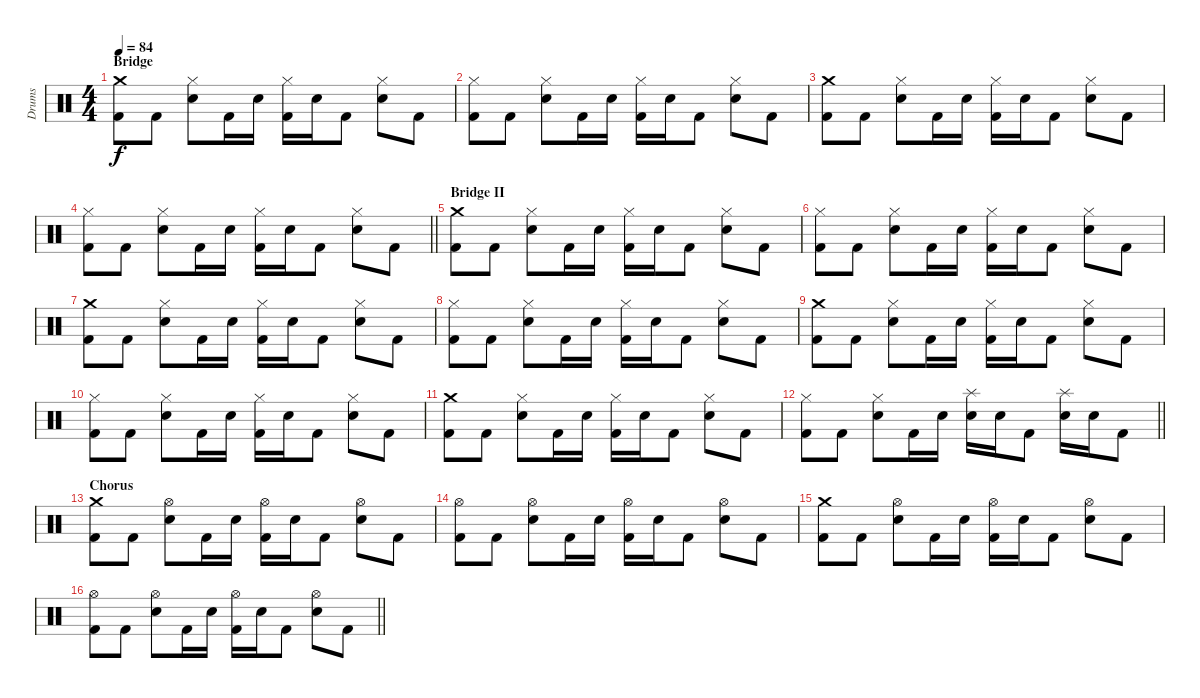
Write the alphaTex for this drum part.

\track ("Drums" "Drums") {instrument percussion}
\staff {score}
\articulation defaults
\ts (4 4)
\section ("" "Bridge")
\tempo 84
\clef neutral
\ks c
("Crash medium (hit)" "Kick (hit) 2").8{dy f} "Kick (hit) 2".8 ("Hi-Hat (closed)" "Snare (hit) 2").8 "Kick (hit) 2".16 "Snare (hit) 2".16 ("Hi-Hat (closed)" "Kick (hit) 2").16 "Snare (hit) 2".16 "Kick (hit) 2".8 ("Hi-Hat (closed)" "Snare (hit) 2").8 "Kick (hit) 2".8 |
("Hi-Hat (closed)" "Kick (hit) 2").8 "Kick (hit) 2".8 ("Hi-Hat (closed)" "Snare (hit) 2").8 "Kick (hit) 2".16 "Snare (hit) 2".16 ("Hi-Hat (closed)" "Kick (hit) 2").16 "Snare (hit) 2".16 "Kick (hit) 2".8 ("Hi-Hat (closed)" "Snare (hit) 2").8 "Kick (hit) 2".8 |
("Crash medium (hit)" "Kick (hit) 2").8 "Kick (hit) 2".8 ("Hi-Hat (closed)" "Snare (hit) 2").8 "Kick (hit) 2".16 "Snare (hit) 2".16 ("Hi-Hat (closed)" "Kick (hit) 2").16 "Snare (hit) 2".16 "Kick (hit) 2".8 ("Hi-Hat (closed)" "Snare (hit) 2").8 "Kick (hit) 2".8 |
\barLineRight lightlight
("Hi-Hat (closed)" "Kick (hit) 2").8 "Kick (hit) 2".8 ("Hi-Hat (closed)" "Snare (hit) 2").8 "Kick (hit) 2".16 "Snare (hit) 2".16 ("Hi-Hat (closed)" "Kick (hit) 2").16 "Snare (hit) 2".16 "Kick (hit) 2".8 ("Hi-Hat (closed)" "Snare (hit) 2").8 "Kick (hit) 2".8 |
\section ("" "Bridge II")
("Crash medium (hit)" "Kick (hit) 2").8 "Kick (hit) 2".8 ("Hi-Hat (closed)" "Snare (hit) 2").8 "Kick (hit) 2".16 "Snare (hit) 2".16 ("Hi-Hat (closed)" "Kick (hit) 2").16 "Snare (hit) 2".16 "Kick (hit) 2".8 ("Hi-Hat (closed)" "Snare (hit) 2").8 "Kick (hit) 2".8 |
("Hi-Hat (closed)" "Kick (hit) 2").8 "Kick (hit) 2".8 ("Hi-Hat (closed)" "Snare (hit) 2").8 "Kick (hit) 2".16 "Snare (hit) 2".16 ("Hi-Hat (closed)" "Kick (hit) 2").16 "Snare (hit) 2".16 "Kick (hit) 2".8 ("Hi-Hat (closed)" "Snare (hit) 2").8 "Kick (hit) 2".8 |
("Crash medium (hit)" "Kick (hit) 2").8 "Kick (hit) 2".8 ("Hi-Hat (closed)" "Snare (hit) 2").8 "Kick (hit) 2".16 "Snare (hit) 2".16 ("Hi-Hat (closed)" "Kick (hit) 2").16 "Snare (hit) 2".16 "Kick (hit) 2".8 ("Hi-Hat (closed)" "Snare (hit) 2").8 "Kick (hit) 2".8 |
("Hi-Hat (closed)" "Kick (hit) 2").8 "Kick (hit) 2".8 ("Hi-Hat (closed)" "Snare (hit) 2").8 "Kick (hit) 2".16 "Snare (hit) 2".16 ("Hi-Hat (closed)" "Kick (hit) 2").16 "Snare (hit) 2".16 "Kick (hit) 2".8 ("Hi-Hat (closed)" "Snare (hit) 2").8 "Kick (hit) 2".8 |
("Crash medium (hit)" "Kick (hit) 2").8 "Kick (hit) 2".8 ("Hi-Hat (closed)" "Snare (hit) 2").8 "Kick (hit) 2".16 "Snare (hit) 2".16 ("Hi-Hat (closed)" "Kick (hit) 2").16 "Snare (hit) 2".16 "Kick (hit) 2".8 ("Hi-Hat (closed)" "Snare (hit) 2").8 "Kick (hit) 2".8 |
("Hi-Hat (closed)" "Kick (hit) 2").8 "Kick (hit) 2".8 ("Hi-Hat (closed)" "Snare (hit) 2").8 "Kick (hit) 2".16 "Snare (hit) 2".16 ("Hi-Hat (closed)" "Kick (hit) 2").16 "Snare (hit) 2".16 "Kick (hit) 2".8 ("Hi-Hat (closed)" "Snare (hit) 2").8 "Kick (hit) 2".8 |
("Crash medium (hit)" "Kick (hit) 2").8 "Kick (hit) 2".8 ("Hi-Hat (closed)" "Snare (hit) 2").8 "Kick (hit) 2".16 "Snare (hit) 2".16 ("Hi-Hat (closed)" "Kick (hit) 2").16 "Snare (hit) 2".16 "Kick (hit) 2".8 ("Hi-Hat (closed)" "Snare (hit) 2").8 "Kick (hit) 2".8 |
\barLineRight lightlight
("Hi-Hat (closed)" "Kick (hit) 2").8 "Kick (hit) 2".8 ("Hi-Hat (closed)" "Snare (hit) 2").8 "Kick (hit) 2".16 "Snare (hit) 2".16 ("Splash (hit)" "Snare (hit) 2").16 "Snare (hit) 2".16 "Kick (hit) 2".8 ("Splash (hit)" "Snare (hit) 2").16 "Snare (hit) 2".16 "Kick (hit) 2".8 |
\section ("" "Chorus")
("Crash medium (hit)" "Kick (hit) 2").8 "Kick (hit) 2".8 ("Hi-Hat (open)" "Snare (hit) 2").8 "Kick (hit) 2".16 "Snare (hit) 2".16 ("Hi-Hat (open)" "Kick (hit) 2").16 "Snare (hit) 2".16 "Kick (hit) 2".8 ("Hi-Hat (open)" "Snare (hit) 2").8 "Kick (hit) 2".8 |
("Hi-Hat (open)" "Kick (hit) 2").8 "Kick (hit) 2".8 ("Hi-Hat (open)" "Snare (hit) 2").8 "Kick (hit) 2".16 "Snare (hit) 2".16 ("Hi-Hat (open)" "Kick (hit) 2").16 "Snare (hit) 2".16 "Kick (hit) 2".8 ("Hi-Hat (open)" "Snare (hit) 2").8 "Kick (hit) 2".8 |
("Crash medium (hit)" "Kick (hit) 2").8 "Kick (hit) 2".8 ("Hi-Hat (open)" "Snare (hit) 2").8 "Kick (hit) 2".16 "Snare (hit) 2".16 ("Hi-Hat (open)" "Kick (hit) 2").16 "Snare (hit) 2".16 "Kick (hit) 2".8 ("Hi-Hat (open)" "Snare (hit) 2").8 "Kick (hit) 2".8 |
\barLineRight lightlight
("Hi-Hat (open)" "Kick (hit) 2").8 "Kick (hit) 2".8 ("Hi-Hat (open)" "Snare (hit) 2").8 "Kick (hit) 2".16 "Snare (hit) 2".16 ("Hi-Hat (open)" "Kick (hit) 2").16 "Snare (hit) 2".16 "Kick (hit) 2".8 ("Hi-Hat (open)" "Snare (hit) 2").8 "Kick (hit) 2".8
